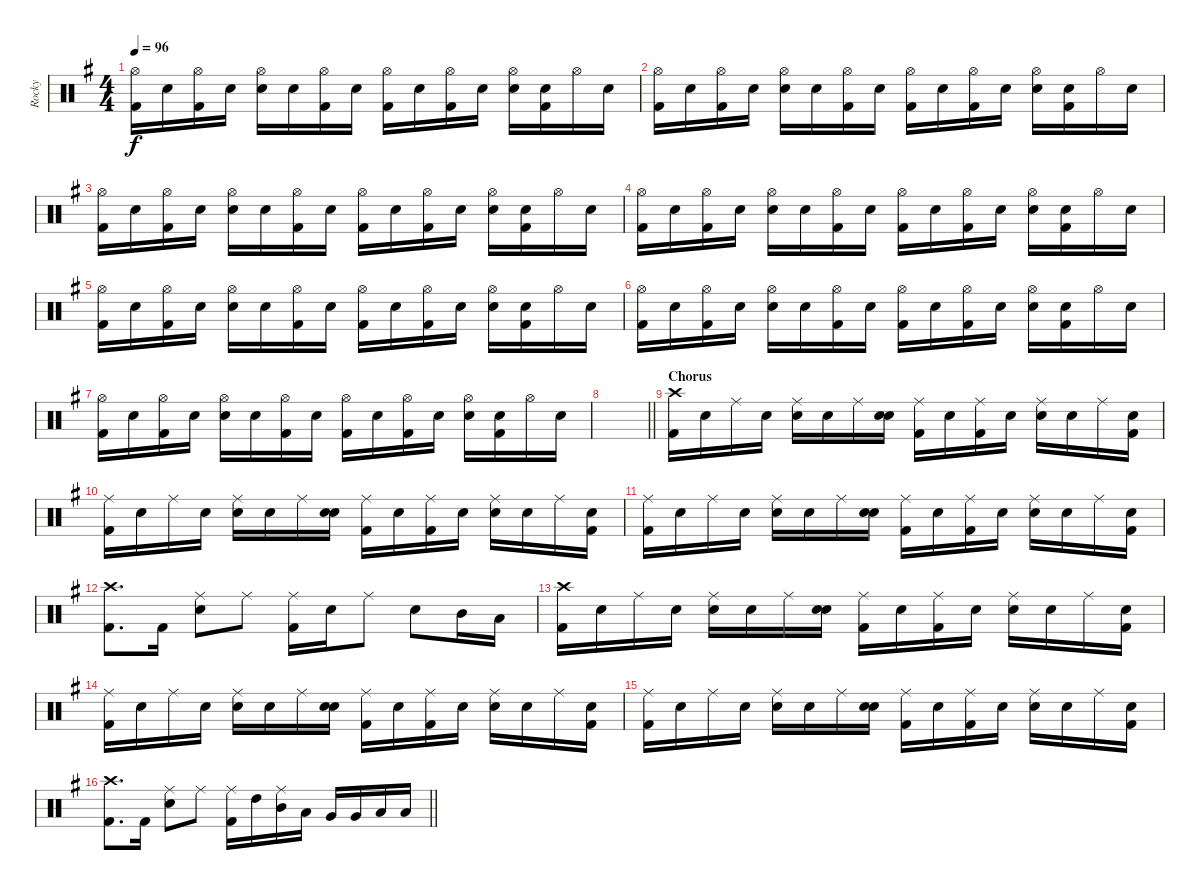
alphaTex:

\track ("Rocky" "Rocky") {instrument percussion}
\staff {score}
\articulation defaults
\ts (4 4)
\tempo 96
\clef neutral
\ks g
("Hi-Hat (open)" "Kick (hit) 2").16{dy f} "Snare (hit)".16 ("Hi-Hat (open)" "Kick (hit) 2").16 "Snare (hit)".16 ("Hi-Hat (open)" "Snare (hit) 2").16 "Snare (hit)".16 ("Hi-Hat (open)" "Kick (hit) 2").16 "Snare (hit)".16 ("Hi-Hat (open)" "Kick (hit) 2").16 "Snare (hit)".16 ("Hi-Hat (open)" "Kick (hit) 2").16 "Snare (hit)".16 ("Hi-Hat (open)" "Snare (hit) 2").16 ("Snare (hit)" "Kick (hit) 2").16 "Hi-Hat (open)".16 "Snare (hit)".16 |
("Hi-Hat (open)" "Kick (hit) 2").16 "Snare (hit)".16 ("Hi-Hat (open)" "Kick (hit) 2").16 "Snare (hit)".16 ("Hi-Hat (open)" "Snare (hit) 2").16 "Snare (hit)".16 ("Hi-Hat (open)" "Kick (hit) 2").16 "Snare (hit)".16 ("Hi-Hat (open)" "Kick (hit) 2").16 "Snare (hit)".16 ("Hi-Hat (open)" "Kick (hit) 2").16 "Snare (hit)".16 ("Hi-Hat (open)" "Snare (hit) 2").16 ("Snare (hit)" "Kick (hit) 2").16 "Hi-Hat (open)".16 "Snare (hit)".16 |
("Hi-Hat (open)" "Kick (hit) 2").16 "Snare (hit)".16 ("Hi-Hat (open)" "Kick (hit) 2").16 "Snare (hit)".16 ("Hi-Hat (open)" "Snare (hit) 2").16 "Snare (hit)".16 ("Hi-Hat (open)" "Kick (hit) 2").16 "Snare (hit)".16 ("Hi-Hat (open)" "Kick (hit) 2").16 "Snare (hit)".16 ("Hi-Hat (open)" "Kick (hit) 2").16 "Snare (hit)".16 ("Hi-Hat (open)" "Snare (hit) 2").16 ("Snare (hit)" "Kick (hit) 2").16 "Hi-Hat (open)".16 "Snare (hit)".16 |
("Hi-Hat (open)" "Kick (hit) 2").16 "Snare (hit)".16 ("Hi-Hat (open)" "Kick (hit) 2").16 "Snare (hit)".16 ("Hi-Hat (open)" "Snare (hit) 2").16 "Snare (hit)".16 ("Hi-Hat (open)" "Kick (hit) 2").16 "Snare (hit)".16 ("Hi-Hat (open)" "Kick (hit) 2").16 "Snare (hit)".16 ("Hi-Hat (open)" "Kick (hit) 2").16 "Snare (hit)".16 ("Hi-Hat (open)" "Snare (hit) 2").16 ("Snare (hit)" "Kick (hit) 2").16 "Hi-Hat (open)".16 "Snare (hit)".16 |
("Hi-Hat (open)" "Kick (hit) 2").16 "Snare (hit)".16 ("Hi-Hat (open)" "Kick (hit) 2").16 "Snare (hit)".16 ("Hi-Hat (open)" "Snare (hit) 2").16 "Snare (hit)".16 ("Hi-Hat (open)" "Kick (hit) 2").16 "Snare (hit)".16 ("Hi-Hat (open)" "Kick (hit) 2").16 "Snare (hit)".16 ("Hi-Hat (open)" "Kick (hit) 2").16 "Snare (hit)".16 ("Hi-Hat (open)" "Snare (hit) 2").16 ("Snare (hit)" "Kick (hit) 2").16 "Hi-Hat (open)".16 "Snare (hit)".16 |
("Hi-Hat (open)" "Kick (hit) 2").16 "Snare (hit)".16 ("Hi-Hat (open)" "Kick (hit) 2").16 "Snare (hit)".16 ("Hi-Hat (open)" "Snare (hit) 2").16 "Snare (hit)".16 ("Hi-Hat (open)" "Kick (hit) 2").16 "Snare (hit)".16 ("Hi-Hat (open)" "Kick (hit) 2").16 "Snare (hit)".16 ("Hi-Hat (open)" "Kick (hit) 2").16 "Snare (hit)".16 ("Hi-Hat (open)" "Snare (hit) 2").16 ("Snare (hit)" "Kick (hit) 2").16 "Hi-Hat (open)".16 "Snare (hit)".16 |
("Hi-Hat (open)" "Kick (hit) 2").16 "Snare (hit)".16 ("Hi-Hat (open)" "Kick (hit) 2").16 "Snare (hit)".16 ("Hi-Hat (open)" "Snare (hit) 2").16 "Snare (hit)".16 ("Hi-Hat (open)" "Kick (hit) 2").16 "Snare (hit)".16 ("Hi-Hat (open)" "Kick (hit) 2").16 "Snare (hit)".16 ("Hi-Hat (open)" "Kick (hit) 2").16 "Snare (hit)".16 ("Hi-Hat (open)" "Snare (hit) 2").16 ("Snare (hit)" "Kick (hit) 2").16 "Hi-Hat (open)".16 "Snare (hit)".16 |
\barLineRight lightlight
|
\section ("" "Chorus")
("Crash high (hit)" "Kick (hit) 2").16 "Snare (hit)".16 "Ride (middle)".16 "Snare (hit)".16 ("Ride (middle)" "Snare (hit) 2").16 "Snare (hit)".16 "Ride (middle)".16 ("Snare (hit)" "Snare (hit) 2").16 ("Ride (middle)" "Kick (hit) 2").16 "Snare (hit)".16 ("Ride (middle)" "Kick (hit) 2").16 "Snare (hit)".16 ("Ride (middle)" "Snare (hit) 2").16 "Snare (hit)".16 "Ride (middle)".16 ("Snare (hit)" "Kick (hit) 2").16 |
("Ride (middle)" "Kick (hit) 2").16 "Snare (hit)".16 "Ride (middle)".16 "Snare (hit)".16 ("Ride (middle)" "Snare (hit) 2").16 "Snare (hit)".16 "Ride (middle)".16 ("Snare (hit)" "Snare (hit) 2").16 ("Ride (middle)" "Kick (hit) 2").16 "Snare (hit)".16 ("Ride (middle)" "Kick (hit) 2").16 "Snare (hit)".16 ("Ride (middle)" "Snare (hit) 2").16 "Snare (hit)".16 "Ride (middle)".16 ("Snare (hit)" "Kick (hit) 2").16 |
("Ride (middle)" "Kick (hit) 2").16 "Snare (hit)".16 "Ride (middle)".16 "Snare (hit)".16 ("Ride (middle)" "Snare (hit) 2").16 "Snare (hit)".16 "Ride (middle)".16 ("Snare (hit)" "Snare (hit) 2").16 ("Ride (middle)" "Kick (hit) 2").16 "Snare (hit)".16 ("Ride (middle)" "Kick (hit) 2").16 "Snare (hit)".16 ("Ride (middle)" "Snare (hit) 2").16 "Snare (hit)".16 "Ride (middle)".16 ("Snare (hit)" "Kick (hit) 2").16 |
("Crash high (hit)" "Kick (hit) 2").8{d} "Kick (hit) 2".16 ("Ride (middle)" "Snare (hit) 2").8 "Ride (middle)".8 ("Ride (middle)" "Kick (hit) 2").16 "Snare (hit) 2".16 "Ride (middle)".8 "Snare (hit) 2".8 "Mid Tom (hit)".16 "Low Tom (hit)".16 |
("Crash high (hit)" "Kick (hit) 2").16 "Snare (hit)".16 "Ride (middle)".16 "Snare (hit)".16 ("Ride (middle)" "Snare (hit) 2").16 "Snare (hit)".16 "Ride (middle)".16 ("Snare (hit)" "Snare (hit) 2").16 ("Ride (middle)" "Kick (hit) 2").16 "Snare (hit)".16 ("Ride (middle)" "Kick (hit) 2").16 "Snare (hit)".16 ("Ride (middle)" "Snare (hit) 2").16 "Snare (hit)".16 "Ride (middle)".16 ("Snare (hit)" "Kick (hit) 2").16 |
("Ride (middle)" "Kick (hit) 2").16 "Snare (hit)".16 "Ride (middle)".16 "Snare (hit)".16 ("Ride (middle)" "Snare (hit) 2").16 "Snare (hit)".16 "Ride (middle)".16 ("Snare (hit)" "Snare (hit) 2").16 ("Ride (middle)" "Kick (hit) 2").16 "Snare (hit)".16 ("Ride (middle)" "Kick (hit) 2").16 "Snare (hit)".16 ("Ride (middle)" "Snare (hit) 2").16 "Snare (hit)".16 "Ride (middle)".16 ("Snare (hit)" "Kick (hit) 2").16 |
("Ride (middle)" "Kick (hit) 2").16 "Snare (hit)".16 "Ride (middle)".16 "Snare (hit)".16 ("Ride (middle)" "Snare (hit) 2").16 "Snare (hit)".16 "Ride (middle)".16 ("Snare (hit)" "Snare (hit) 2").16 ("Ride (middle)" "Kick (hit) 2").16 "Snare (hit)".16 ("Ride (middle)" "Kick (hit) 2").16 "Snare (hit)".16 ("Ride (middle)" "Snare (hit) 2").16 "Snare (hit)".16 "Ride (middle)".16 ("Snare (hit)" "Kick (hit) 2").16 |
\barLineRight lightlight
("Crash high (hit)" "Kick (hit) 2").8{d} "Kick (hit) 2".16 ("Ride (middle)" "Snare (hit) 2").8 "Ride (middle)".8 ("Ride (middle)" "Kick (hit) 2").16 "High Tom (hit)".16 ("Ride (middle)" "Mid Tom (hit)").16 "Low Tom (hit)".16 "Very Low Tom (hit)".16 "Very Low Tom (hit)".16 "Low Floor Tom (hit)".16 "Low Floor Tom (hit)".16
